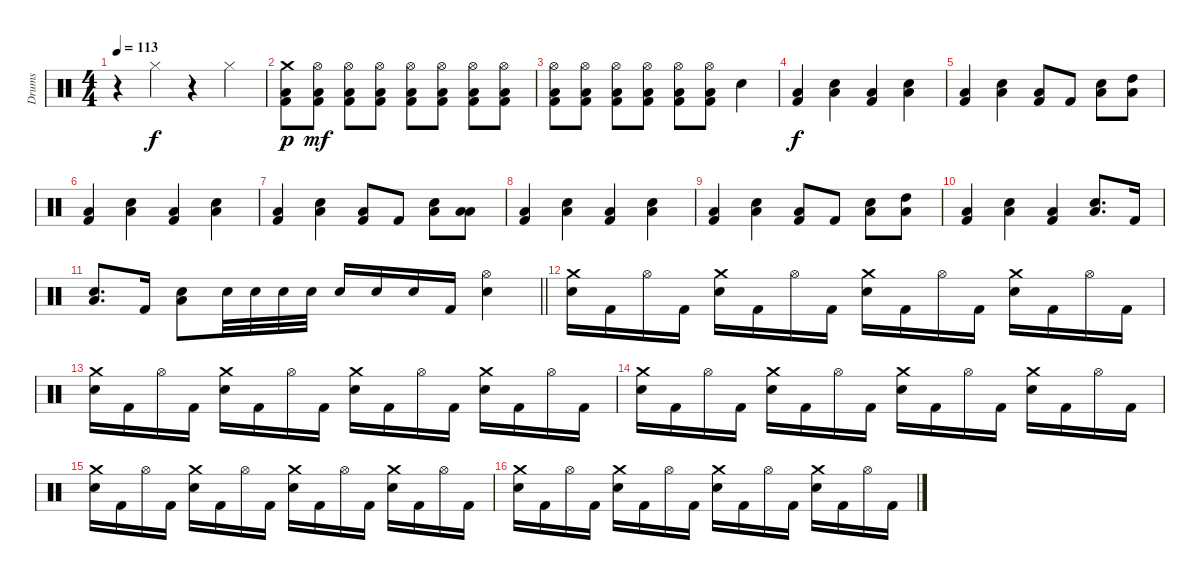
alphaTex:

\track ("Drums" "Drums") {instrument percussion}
\staff {score}
\articulation defaults
\ts (4 4)
\tempo 113
\clef neutral
\ks c
r.4{dy f} "Hi-Hat (closed)".4 r.4 "Hi-Hat (closed)".4 |
("Crash medium (hit)" "Low Floor Tom (hit)" "Kick (hit) 2").8{dy p} ("Hi-Hat (open)" "Low Floor Tom (hit)" "Kick (hit) 2").8{dy mf} ("Hi-Hat (open)" "Low Floor Tom (hit)" "Kick (hit) 2").8 ("Hi-Hat (open)" "Low Floor Tom (hit)" "Kick (hit) 2").8 ("Hi-Hat (open)" "Low Floor Tom (hit)" "Kick (hit) 2").8 ("Hi-Hat (open)" "Low Floor Tom (hit)" "Kick (hit) 2").8 ("Hi-Hat (open)" "Low Floor Tom (hit)" "Kick (hit) 2").8 ("Hi-Hat (open)" "Low Floor Tom (hit)" "Kick (hit) 2").8 |
("Hi-Hat (open)" "Low Floor Tom (hit)" "Kick (hit) 2").8 ("Hi-Hat (open)" "Low Floor Tom (hit)" "Kick (hit) 2").8 ("Hi-Hat (open)" "Low Floor Tom (hit)" "Kick (hit) 2").8 ("Hi-Hat (open)" "Low Floor Tom (hit)" "Kick (hit) 2").8 ("Hi-Hat (open)" "Low Floor Tom (hit)" "Kick (hit) 2").8 ("Hi-Hat (open)" "Low Floor Tom (hit)" "Kick (hit) 2").8 "Electric Snare (hit)".4 |
("Low Floor Tom (hit)" "Kick (hit) 2").4{dy f} ("Low Floor Tom (hit)" "Electric Snare (hit)").4 ("Low Floor Tom (hit)" "Kick (hit) 2").4 ("Low Floor Tom (hit)" "Electric Snare (hit)").4 |
("Low Floor Tom (hit)" "Kick (hit) 2").4 ("Low Floor Tom (hit)" "Electric Snare (hit)").4 ("Low Floor Tom (hit)" "Kick (hit) 2").8 "Kick (hit) 2".8 ("Low Floor Tom (hit)" "Electric Snare (hit)").8 ("High Tom (hit)" "Low Tom (hit)").8 |
("Low Floor Tom (hit)" "Kick (hit) 2").4 ("Low Floor Tom (hit)" "Electric Snare (hit)").4 ("Low Floor Tom (hit)" "Kick (hit) 2").4 ("Low Floor Tom (hit)" "Electric Snare (hit)").4 |
("Low Floor Tom (hit)" "Kick (hit) 2").4 ("Low Floor Tom (hit)" "Electric Snare (hit)").4 ("Low Floor Tom (hit)" "Kick (hit) 2").8 "Kick (hit) 2".8 ("Low Floor Tom (hit)" "Electric Snare (hit)").8 ("Low Floor Tom (hit)" "Low Floor Tom (hit)").8 |
("Low Floor Tom (hit)" "Kick (hit) 2").4 ("Low Floor Tom (hit)" "Electric Snare (hit)").4 ("Low Floor Tom (hit)" "Kick (hit) 2").4 ("Low Floor Tom (hit)" "Electric Snare (hit)").4 |
("Low Floor Tom (hit)" "Kick (hit) 2").4 ("Low Floor Tom (hit)" "Electric Snare (hit)").4 ("Low Floor Tom (hit)" "Kick (hit) 2").8 "Kick (hit) 2".8 ("Low Floor Tom (hit)" "Electric Snare (hit)").8 ("High Tom (hit)" "Low Tom (hit)").8 |
("Low Floor Tom (hit)" "Kick (hit) 2").4 ("Low Floor Tom (hit)" "Electric Snare (hit)").4 ("Low Floor Tom (hit)" "Kick (hit) 2").4 ("Low Floor Tom (hit)" "Electric Snare (hit)").8{d} "Kick (hit) 2".16 |
\barLineRight lightlight
("Low Floor Tom (hit)" "Electric Snare (hit)").8{d} "Kick (hit) 2".16 ("Low Floor Tom (hit)" "Electric Snare (hit)").8 "Electric Snare (hit)".32 "Electric Snare (hit)".32 "Electric Snare (hit)".32 "Electric Snare (hit)".32 "Electric Snare (hit)".16 "Electric Snare (hit)".16 "Electric Snare (hit)".16 "Kick (hit) 2".16 ("Hi-Hat (open)" "Electric Snare (hit)").4 |
\section ("" "")
("Crash medium (hit)" "Electric Snare (hit)").16 "Kick (hit) 2".16 "Hi-Hat (open)".16 "Kick (hit) 2".16 ("Crash medium (hit)" "Electric Snare (hit)").16 "Kick (hit) 2".16 "Hi-Hat (open)".16 "Kick (hit) 2".16 ("Crash medium (hit)" "Electric Snare (hit)").16 "Kick (hit) 2".16 "Hi-Hat (open)".16 "Kick (hit) 2".16 ("Crash medium (hit)" "Electric Snare (hit)").16 "Kick (hit) 2".16 "Hi-Hat (open)".16 "Kick (hit) 2".16 |
("Crash medium (hit)" "Electric Snare (hit)").16 "Kick (hit) 2".16 "Hi-Hat (open)".16 "Kick (hit) 2".16 ("Crash medium (hit)" "Electric Snare (hit)").16 "Kick (hit) 2".16 "Hi-Hat (open)".16 "Kick (hit) 2".16 ("Crash medium (hit)" "Electric Snare (hit)").16 "Kick (hit) 2".16 "Hi-Hat (open)".16 "Kick (hit) 2".16 ("Crash medium (hit)" "Electric Snare (hit)").16 "Kick (hit) 2".16 "Hi-Hat (open)".16 "Kick (hit) 2".16 |
("Crash medium (hit)" "Electric Snare (hit)").16 "Kick (hit) 2".16 "Hi-Hat (open)".16 "Kick (hit) 2".16 ("Crash medium (hit)" "Electric Snare (hit)").16 "Kick (hit) 2".16 "Hi-Hat (open)".16 "Kick (hit) 2".16 ("Crash medium (hit)" "Electric Snare (hit)").16 "Kick (hit) 2".16 "Hi-Hat (open)".16 "Kick (hit) 2".16 ("Crash medium (hit)" "Electric Snare (hit)").16 "Kick (hit) 2".16 "Hi-Hat (open)".16 "Kick (hit) 2".16 |
("Crash medium (hit)" "Electric Snare (hit)").16 "Kick (hit) 2".16 "Hi-Hat (open)".16 "Kick (hit) 2".16 ("Crash medium (hit)" "Electric Snare (hit)").16 "Kick (hit) 2".16 "Hi-Hat (open)".16 "Kick (hit) 2".16 ("Crash medium (hit)" "Electric Snare (hit)").16 "Kick (hit) 2".16 "Hi-Hat (open)".16 "Kick (hit) 2".16 ("Crash medium (hit)" "Electric Snare (hit)").16 "Kick (hit) 2".16 "Hi-Hat (open)".16 "Kick (hit) 2".16 |
("Crash medium (hit)" "Electric Snare (hit)").16 "Kick (hit) 2".16 "Hi-Hat (open)".16 "Kick (hit) 2".16 ("Crash medium (hit)" "Electric Snare (hit)").16 "Kick (hit) 2".16 "Hi-Hat (open)".16 "Kick (hit) 2".16 ("Crash medium (hit)" "Electric Snare (hit)").16 "Kick (hit) 2".16 "Hi-Hat (open)".16 "Kick (hit) 2".16 ("Crash medium (hit)" "Electric Snare (hit)").16 "Kick (hit) 2".16 "Hi-Hat (open)".16 "Kick (hit) 2".16
